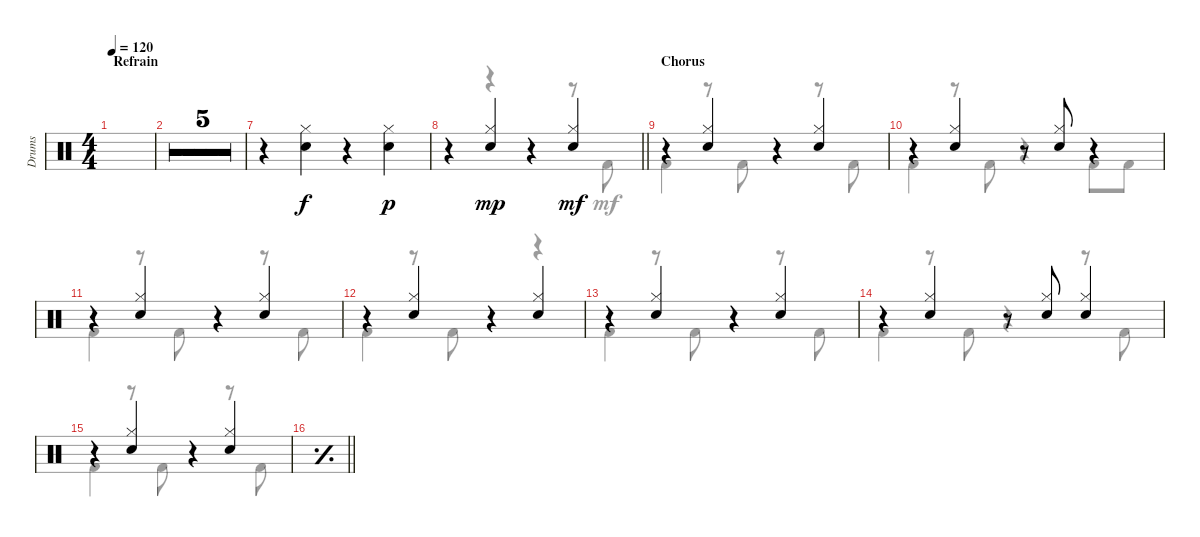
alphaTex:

\defaultSystemsLayout 4
\bracketExtendMode groupsimilarinstruments
\otherSystemsTrackNameOrientation horizontal
\track ("Drums" "Drums") {multiBarRest instrument percussion}
\staff {score}
\articulation defaults
\voice
\ts (4 4)
\section ("" "Refrain")
\tempo 120
\clef neutral
\ks c
|
|
|
|
|
|
r.4{beam Down} ("Snare (hit) 2" "Hi-Hat (closed)").4{beam Down} r.4{beam Down} ("Snare (hit) 2" "Hi-Hat (closed)").4{dy p beam Down} |
\barLineRight lightlight
r.4{beam Up} ("Snare (hit) 2" "Hi-Hat (closed)").4{dy mp beam Up} r.4{beam Up} ("Snare (hit) 2" "Hi-Hat (closed)").4{dy mf beam Up} |
\section ("" "Chorus")
r.4{beam Up} ("Hi-Hat (closed)" "Snare (hit) 2").4{beam Up} r.4{beam Up} ("Hi-Hat (closed)" "Snare (hit) 2").4{beam Up} |
r.4{beam Up} ("Hi-Hat (closed)" "Snare (hit) 2").4{beam Up} r.8{beam Up} ("Snare (hit) 2" "Hi-Hat (closed)").8{beam Up} r.4{beam Up} |
r.4{beam Up} ("Hi-Hat (closed)" "Snare (hit) 2").4{beam Up} r.4{beam Up} ("Hi-Hat (closed)" "Snare (hit) 2").4{beam Up} |
r.4{beam Up} ("Hi-Hat (closed)" "Snare (hit) 2").4{beam Up} r.4{beam Up} ("Hi-Hat (closed)" "Snare (hit) 2").4{beam Up} |
r.4{beam Up} ("Hi-Hat (closed)" "Snare (hit) 2").4{beam Up} r.4{beam Up} ("Hi-Hat (closed)" "Snare (hit) 2").4{beam Up} |
r.4{beam Up} ("Hi-Hat (closed)" "Snare (hit) 2").4{beam Up} r.8{beam Up} ("Hi-Hat (closed)" "Snare (hit) 2").8{beam Up} ("Hi-Hat (closed)" "Snare (hit) 2").4{beam Up} |
r.4{beam Up} ("Hi-Hat (closed)" "Snare (hit) 2").4{beam Up} r.4{beam Up} ("Hi-Hat (closed)" "Snare (hit) 2").4{beam Up} |
\simile simple
\barLineRight lightlight
\voice
\clef neutral
\ottava regular
\simile none
\ks c
|
|
|
|
|
|
|
\barLineRight lightlight
r.4{beam Down} r.4{beam Down} r.4{beam Down} r.8{beam Down} "Kick (hit) 2".8{beam Down} |
"Kick (hit) 2".4{beam Down} r.8{beam Down} "Kick (hit) 2".8{beam Down} r.4{beam Down} r.8{beam Down} "Kick (hit) 2".8{beam Down} |
"Kick (hit) 2".4{beam Down} r.8{beam Down} "Kick (hit) 2".8{beam Down} r.4{beam Down} "Kick (hit) 2".8{beam Down} "Kick (hit) 2".8{beam Down} |
"Kick (hit) 2".4{beam Down} r.8{beam Down} "Kick (hit) 2".8{beam Down} r.4{beam Down} r.8{beam Down} "Kick (hit) 2".8{beam Down} |
"Kick (hit) 2".4{beam Down} r.8{beam Down} "Kick (hit) 2".8{beam Down} r.4{beam Down} r.4{beam Down} |
"Kick (hit) 2".4{beam Down} r.8{beam Down} "Kick (hit) 2".8{beam Down} r.4{beam Down} r.8{beam Down} "Kick (hit) 2".8{beam Down} |
"Kick (hit) 2".4{beam Down} r.8{beam Down} "Kick (hit) 2".8{beam Down} r.4{beam Down} r.8{beam Down} "Kick (hit) 2".8{beam Down} |
"Kick (hit) 2".4{beam Down} r.8{beam Down} "Kick (hit) 2".8{beam Down} r.4{beam Down} r.8{beam Down} "Kick (hit) 2".8{beam Down} |
\simile simple
\barLineRight lightlight
